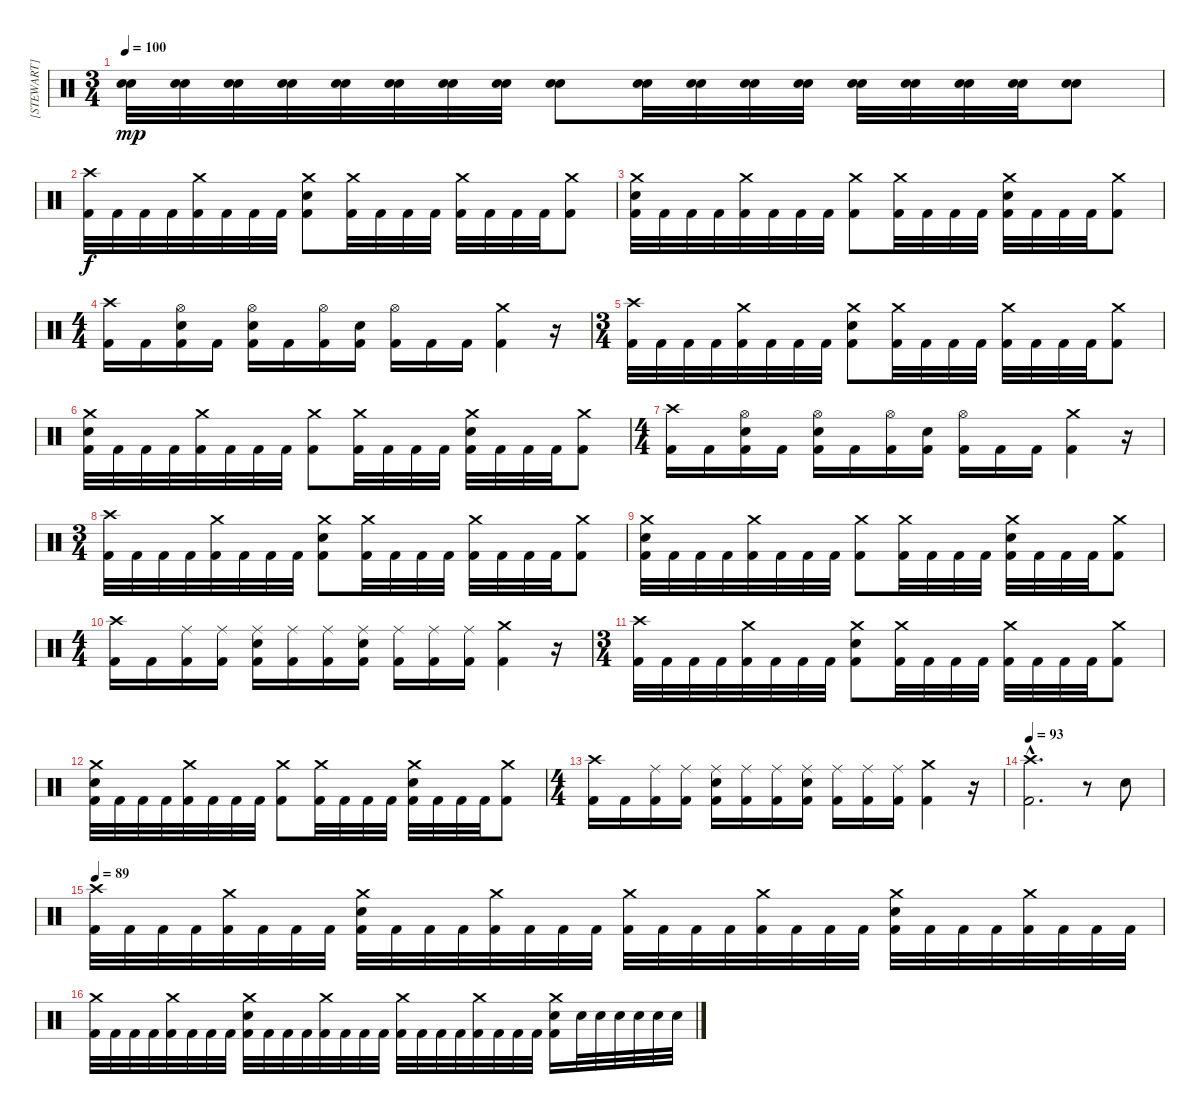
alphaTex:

\track ("[STEWART]" "[STEWART]") {instrument percussion}
\staff {score}
\articulation defaults
\ts (3 4)
\tempo 100
\clef neutral
\ks c
("Electric Snare (hit)" "Snare (hit) 2").32{dy mp} ("Electric Snare (hit)" "Snare (hit) 2").32 ("Electric Snare (hit)" "Snare (hit) 2").32 ("Electric Snare (hit)" "Snare (hit) 2").32 ("Electric Snare (hit)" "Snare (hit) 2").32 ("Electric Snare (hit)" "Snare (hit) 2").32 ("Electric Snare (hit)" "Snare (hit) 2").32 ("Electric Snare (hit)" "Snare (hit) 2").32 ("Electric Snare (hit)" "Snare (hit) 2").8 ("Electric Snare (hit)" "Snare (hit) 2").32 ("Electric Snare (hit)" "Snare (hit) 2").32 ("Electric Snare (hit)" "Snare (hit) 2").32 ("Electric Snare (hit)" "Snare (hit) 2").32 ("Electric Snare (hit)" "Snare (hit) 2").32 ("Electric Snare (hit)" "Snare (hit) 2").32 ("Electric Snare (hit)" "Snare (hit) 2").32 ("Electric Snare (hit)" "Snare (hit) 2").32 ("Electric Snare (hit)" "Snare (hit) 2").8 |
("Crash high (hit)" "Kick (hit) 2").32{dy f} "Kick (hit) 2".32 "Kick (hit) 2".32 "Kick (hit) 2".32 ("Crash medium (hit)" "Kick (hit) 2").32 "Kick (hit) 2".32 "Kick (hit) 2".32 "Kick (hit) 2".32 ("Crash medium (hit)" "Electric Snare (hit)" "Kick (hit) 2").8 ("Crash medium (hit)" "Kick (hit) 2").32 "Kick (hit) 2".32 "Kick (hit) 2".32 "Kick (hit) 2".32 ("Crash medium (hit)" "Kick (hit) 2").32 "Kick (hit) 2".32 "Kick (hit) 2".32 "Kick (hit) 2".32 ("Crash medium (hit)" "Kick (hit) 2").8 |
("Crash medium (hit)" "Electric Snare (hit)" "Kick (hit) 2").32 "Kick (hit) 2".32 "Kick (hit) 2".32 "Kick (hit) 2".32 ("Crash medium (hit)" "Kick (hit) 2").32 "Kick (hit) 2".32 "Kick (hit) 2".32 "Kick (hit) 2".32 ("Crash medium (hit)" "Kick (hit) 2").8 ("Crash medium (hit)" "Kick (hit) 2").32 "Kick (hit) 2".32 "Kick (hit) 2".32 "Kick (hit) 2".32 ("Crash medium (hit)" "Electric Snare (hit)" "Kick (hit) 2").32 "Kick (hit) 2".32 "Kick (hit) 2".32 "Kick (hit) 2".32 ("Crash medium (hit)" "Kick (hit) 2").8 |
\ts (4 4)
("Crash high (hit)" "Kick (hit) 2").16 "Kick (hit) 2".16 ("Hi-Hat (open)" "Electric Snare (hit)" "Kick (hit) 2").16 "Kick (hit) 2".16 ("Hi-Hat (open)" "Electric Snare (hit)" "Kick (hit) 2").16 "Kick (hit) 2".16 ("Hi-Hat (open)" "Kick (hit) 2").16 ("Electric Snare (hit)" "Kick (hit) 2").16 ("Hi-Hat (open)" "Kick (hit) 2").16 "Kick (hit) 2".16 "Kick (hit) 2".16 ("Crash medium (hit)" "Kick (hit) 2").4 r.16 |
\ts (3 4)
("Crash high (hit)" "Kick (hit) 2").32 "Kick (hit) 2".32 "Kick (hit) 2".32 "Kick (hit) 2".32 ("Crash medium (hit)" "Kick (hit) 2").32 "Kick (hit) 2".32 "Kick (hit) 2".32 "Kick (hit) 2".32 ("Crash medium (hit)" "Electric Snare (hit)" "Kick (hit) 2").8 ("Crash medium (hit)" "Kick (hit) 2").32 "Kick (hit) 2".32 "Kick (hit) 2".32 "Kick (hit) 2".32 ("Crash medium (hit)" "Kick (hit) 2").32 "Kick (hit) 2".32 "Kick (hit) 2".32 "Kick (hit) 2".32 ("Crash medium (hit)" "Kick (hit) 2").8 |
("Crash medium (hit)" "Electric Snare (hit)" "Kick (hit) 2").32 "Kick (hit) 2".32 "Kick (hit) 2".32 "Kick (hit) 2".32 ("Crash medium (hit)" "Kick (hit) 2").32 "Kick (hit) 2".32 "Kick (hit) 2".32 "Kick (hit) 2".32 ("Crash medium (hit)" "Kick (hit) 2").8 ("Crash medium (hit)" "Kick (hit) 2").32 "Kick (hit) 2".32 "Kick (hit) 2".32 "Kick (hit) 2".32 ("Crash medium (hit)" "Electric Snare (hit)" "Kick (hit) 2").32 "Kick (hit) 2".32 "Kick (hit) 2".32 "Kick (hit) 2".32 ("Crash medium (hit)" "Kick (hit) 2").8 |
\ts (4 4)
("Crash high (hit)" "Kick (hit) 2").16 "Kick (hit) 2".16 ("Hi-Hat (open)" "Electric Snare (hit)" "Kick (hit) 2").16 "Kick (hit) 2".16 ("Hi-Hat (open)" "Electric Snare (hit)" "Kick (hit) 2").16 "Kick (hit) 2".16 ("Hi-Hat (open)" "Kick (hit) 2").16 ("Electric Snare (hit)" "Kick (hit) 2").16 ("Hi-Hat (open)" "Kick (hit) 2").16 "Kick (hit) 2".16 "Kick (hit) 2".16 ("Crash medium (hit)" "Kick (hit) 2").4 r.16 |
\ts (3 4)
("Crash high (hit)" "Kick (hit) 2").32 "Kick (hit) 2".32 "Kick (hit) 2".32 "Kick (hit) 2".32 ("Crash medium (hit)" "Kick (hit) 2").32 "Kick (hit) 2".32 "Kick (hit) 2".32 "Kick (hit) 2".32 ("Crash medium (hit)" "Electric Snare (hit)" "Kick (hit) 2").8 ("Crash medium (hit)" "Kick (hit) 2").32 "Kick (hit) 2".32 "Kick (hit) 2".32 "Kick (hit) 2".32 ("Crash medium (hit)" "Kick (hit) 2").32 "Kick (hit) 2".32 "Kick (hit) 2".32 "Kick (hit) 2".32 ("Crash medium (hit)" "Kick (hit) 2").8 |
("Crash medium (hit)" "Electric Snare (hit)" "Kick (hit) 2").32 "Kick (hit) 2".32 "Kick (hit) 2".32 "Kick (hit) 2".32 ("Crash medium (hit)" "Kick (hit) 2").32 "Kick (hit) 2".32 "Kick (hit) 2".32 "Kick (hit) 2".32 ("Crash medium (hit)" "Kick (hit) 2").8 ("Crash medium (hit)" "Kick (hit) 2").32 "Kick (hit) 2".32 "Kick (hit) 2".32 "Kick (hit) 2".32 ("Crash medium (hit)" "Electric Snare (hit)" "Kick (hit) 2").32 "Kick (hit) 2".32 "Kick (hit) 2".32 "Kick (hit) 2".32 ("Crash medium (hit)" "Kick (hit) 2").8 |
\ts (4 4)
("Crash high (hit)" "Kick (hit) 2").16 "Kick (hit) 2".16 ("Ride (middle)" "Kick (hit) 2").16 ("Ride (middle)" "Kick (hit) 2").16 ("Ride (middle)" "Electric Snare (hit)" "Kick (hit) 2").16 ("Ride (middle)" "Kick (hit) 2").16 ("Ride (middle)" "Kick (hit) 2").16 ("Ride (middle)" "Electric Snare (hit)" "Kick (hit) 2").16 ("Ride (middle)" "Kick (hit) 2").16 ("Ride (middle)" "Kick (hit) 2").16 ("Ride (middle)" "Kick (hit) 2").16 ("Crash medium (hit)" "Kick (hit) 2").4 r.16 |
\ts (3 4)
("Crash high (hit)" "Kick (hit) 2").32 "Kick (hit) 2".32 "Kick (hit) 2".32 "Kick (hit) 2".32 ("Crash medium (hit)" "Kick (hit) 2").32 "Kick (hit) 2".32 "Kick (hit) 2".32 "Kick (hit) 2".32 ("Crash medium (hit)" "Electric Snare (hit)" "Kick (hit) 2").8 ("Crash medium (hit)" "Kick (hit) 2").32 "Kick (hit) 2".32 "Kick (hit) 2".32 "Kick (hit) 2".32 ("Crash medium (hit)" "Kick (hit) 2").32 "Kick (hit) 2".32 "Kick (hit) 2".32 "Kick (hit) 2".32 ("Crash medium (hit)" "Kick (hit) 2").8 |
("Crash medium (hit)" "Electric Snare (hit)" "Kick (hit) 2").32 "Kick (hit) 2".32 "Kick (hit) 2".32 "Kick (hit) 2".32 ("Crash medium (hit)" "Kick (hit) 2").32 "Kick (hit) 2".32 "Kick (hit) 2".32 "Kick (hit) 2".32 ("Crash medium (hit)" "Kick (hit) 2").8 ("Crash medium (hit)" "Kick (hit) 2").32 "Kick (hit) 2".32 "Kick (hit) 2".32 "Kick (hit) 2".32 ("Crash medium (hit)" "Electric Snare (hit)" "Kick (hit) 2").32 "Kick (hit) 2".32 "Kick (hit) 2".32 "Kick (hit) 2".32 ("Crash medium (hit)" "Kick (hit) 2").8 |
\ts (4 4)
("Crash high (hit)" "Kick (hit) 2").16 "Kick (hit) 2".16 ("Ride (middle)" "Kick (hit) 2").16 ("Ride (middle)" "Kick (hit) 2").16 ("Ride (middle)" "Electric Snare (hit)" "Kick (hit) 2").16 ("Ride (middle)" "Kick (hit) 2").16 ("Ride (middle)" "Kick (hit) 2").16 ("Ride (middle)" "Electric Snare (hit)" "Kick (hit) 2").16 ("Ride (middle)" "Kick (hit) 2").16 ("Ride (middle)" "Kick (hit) 2").16 ("Ride (middle)" "Kick (hit) 2").16 ("Crash medium (hit)" "Kick (hit) 2").4 r.16 |
\tempo 93
("Crash high (hit)"{hac} "Kick (hit) 2"{hac}).2{d} r.8 "Electric Snare (hit)".8 |
\tempo 89
("Crash high (hit)" "Kick (hit) 2").32 "Kick (hit) 2".32 "Kick (hit) 2".32 "Kick (hit) 2".32 ("Crash medium (hit)" "Kick (hit) 2").32 "Kick (hit) 2".32 "Kick (hit) 2".32 "Kick (hit) 2".32 ("Crash medium (hit)" "Electric Snare (hit)" "Kick (hit) 2").32 "Kick (hit) 2".32 "Kick (hit) 2".32 "Kick (hit) 2".32 ("Crash medium (hit)" "Kick (hit) 2").32 "Kick (hit) 2".32 "Kick (hit) 2".32 "Kick (hit) 2".32 ("Crash medium (hit)" "Kick (hit) 2").32 "Kick (hit) 2".32 "Kick (hit) 2".32 "Kick (hit) 2".32 ("Crash medium (hit)" "Kick (hit) 2").32 "Kick (hit) 2".32 "Kick (hit) 2".32 "Kick (hit) 2".32 ("Crash medium (hit)" "Electric Snare (hit)" "Kick (hit) 2").32 "Kick (hit) 2".32 "Kick (hit) 2".32 "Kick (hit) 2".32 ("Crash medium (hit)" "Kick (hit) 2").32 "Kick (hit) 2".32 "Kick (hit) 2".32 "Kick (hit) 2".32 |
("Crash medium (hit)" "Kick (hit) 2").32 "Kick (hit) 2".32 "Kick (hit) 2".32 "Kick (hit) 2".32 ("Crash medium (hit)" "Kick (hit) 2").32 "Kick (hit) 2".32 "Kick (hit) 2".32 "Kick (hit) 2".32 ("Crash medium (hit)" "Electric Snare (hit)" "Kick (hit) 2").32 "Kick (hit) 2".32 "Kick (hit) 2".32 "Kick (hit) 2".32 ("Crash medium (hit)" "Kick (hit) 2").32 "Kick (hit) 2".32 "Kick (hit) 2".32 "Kick (hit) 2".32 ("Crash medium (hit)" "Kick (hit) 2").32 "Kick (hit) 2".32 "Kick (hit) 2".32 "Kick (hit) 2".32 ("Crash medium (hit)" "Kick (hit) 2").32 "Kick (hit) 2".32 "Kick (hit) 2".32 "Kick (hit) 2".32 ("Crash medium (hit)" "Electric Snare (hit)" "Kick (hit) 2").16 "Electric Snare (hit)".32 "Electric Snare (hit)".32 "Electric Snare (hit)".32 "Electric Snare (hit)".32 "Electric Snare (hit)".32 "Electric Snare (hit)".32
